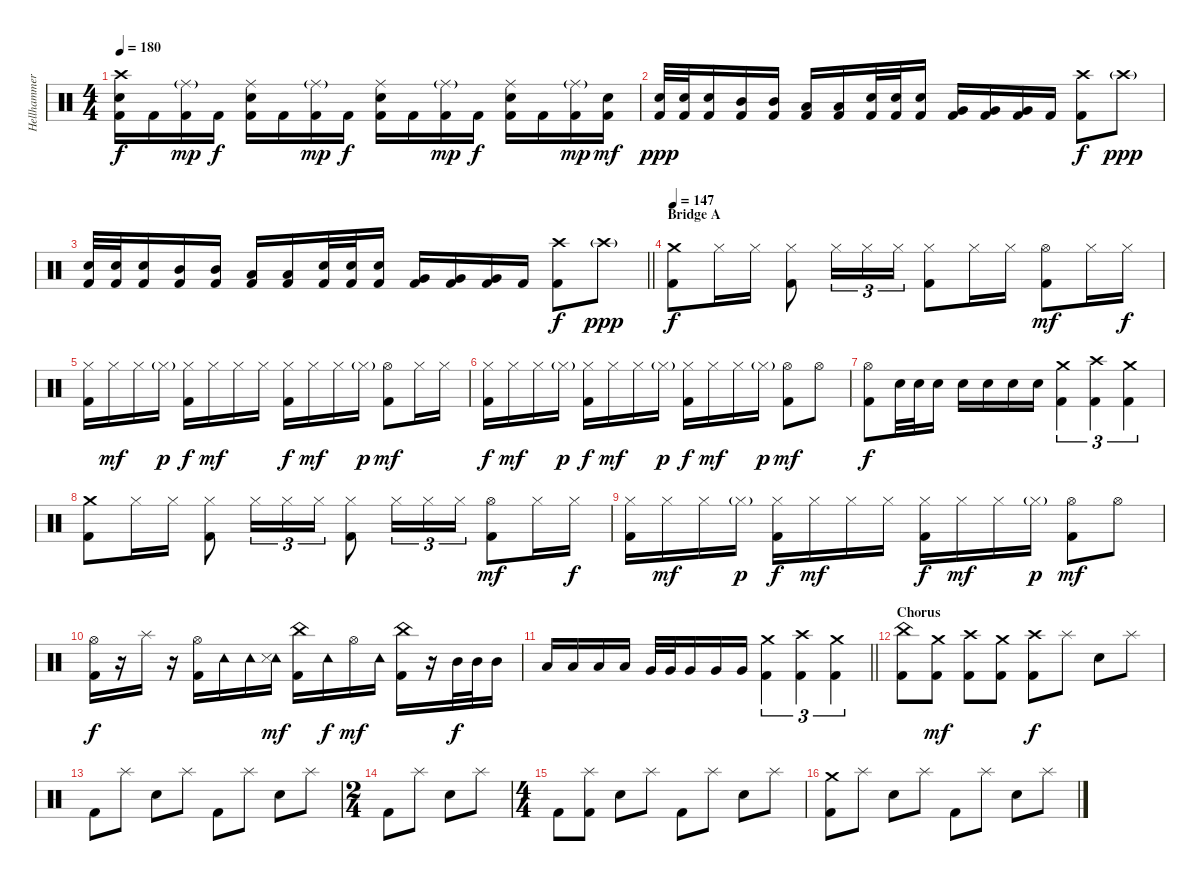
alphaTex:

\track ("Hellhammer" "Hellhammer") {instrument percussion}
\staff {score}
\articulation defaults
\ts (4 4)
\tempo 180
\clef neutral
\ks c
("Crash high (hit)" "Electric Snare (hit)" "Kick (hit) 2").16{dy f} "Kick (hit) 2".16 ("Ride (middle)"{g} "Kick (hit) 2").16{dy mp} "Kick (hit) 2".16{dy f} ("Ride (middle)" "Electric Snare (hit)" "Kick (hit) 2").16 "Kick (hit) 2".16 ("Ride (middle)"{g} "Kick (hit) 2").16{dy mp} "Kick (hit) 2".16{dy f} ("Ride (middle)" "Electric Snare (hit)" "Kick (hit) 2").16 "Kick (hit) 2".16 ("Ride (middle)"{g} "Kick (hit) 2").16{dy mp} "Kick (hit) 2".16{dy f} ("Ride (middle)" "Electric Snare (hit)" "Kick (hit) 2").16 "Kick (hit) 2".16 ("Ride (middle)"{g} "Kick (hit) 2").16{dy mp} ("Electric Snare (hit)" "Kick (hit) 2").16{dy mf} |
("Electric Snare (hit)" "Kick (hit) 2").32{dy ppp} ("Electric Snare (hit)" "Kick (hit) 2").32 ("Electric Snare (hit)" "Kick (hit) 2").16 ("Mid Tom (hit)" "Kick (hit) 2").16 ("Mid Tom (hit)" "Kick (hit) 2").16 ("Low Tom (hit)" "Kick (hit) 2").16 ("Low Tom (hit)" "Kick (hit) 2").16 ("Electric Snare (hit)" "Kick (hit) 2").32 ("Electric Snare (hit)" "Kick (hit) 2").32 ("Electric Snare (hit)" "Kick (hit) 2").16 ("Very Low Tom (hit)" "Kick (hit) 2").16 ("Very Low Tom (hit)" "Kick (hit) 2").16 ("Very Low Tom (hit)" "Kick (hit) 2").16 "Kick (hit) 2".16 ("Crash high (hit)" "Kick (hit) 2").8{dy f} "Crash high (hit)"{g}.8{dy ppp} |
\barLineRight lightlight
("Electric Snare (hit)" "Kick (hit) 2").32 ("Electric Snare (hit)" "Kick (hit) 2").32 ("Electric Snare (hit)" "Kick (hit) 2").16 ("Mid Tom (hit)" "Kick (hit) 2").16 ("Mid Tom (hit)" "Kick (hit) 2").16 ("Low Tom (hit)" "Kick (hit) 2").16 ("Low Tom (hit)" "Kick (hit) 2").16 ("Electric Snare (hit)" "Kick (hit) 2").32 ("Electric Snare (hit)" "Kick (hit) 2").32 ("Electric Snare (hit)" "Kick (hit) 2").16 ("Very Low Tom (hit)" "Kick (hit) 2").16 ("Very Low Tom (hit)" "Kick (hit) 2").16 ("Very Low Tom (hit)" "Kick (hit) 2").16 "Kick (hit) 2".16 ("Crash high (hit)" "Kick (hit) 2").8{dy f} "Crash high (hit)"{g}.8{dy ppp} |
\section ("" "Bridge A")
\tempo 147
("Crash medium (hit)" "Kick (hit) 2").8{dy f} "Hi-Hat (closed)".16 "Hi-Hat (closed)".16 ("Hi-Hat (closed)" "Kick (hit) 2").8 "Hi-Hat (closed)".16{tu (3 2)} "Hi-Hat (closed)".16{tu (3 2)} "Hi-Hat (closed)".16{tu (3 2)} ("Hi-Hat (closed)" "Kick (hit) 2").8 "Hi-Hat (closed)".16 "Hi-Hat (closed)".16 ("Hi-Hat (open)" "Kick (hit) 2").8{dy mf} "Hi-Hat (closed)".16 "Hi-Hat (closed)".16{dy f} |
("Hi-Hat (closed)" "Kick (hit) 2").16 "Hi-Hat (closed)".16{dy mf} "Hi-Hat (closed)".16 "Hi-Hat (closed)"{g}.16{dy p} ("Hi-Hat (closed)" "Kick (hit) 2").16{dy f} "Hi-Hat (closed)".16{dy mf} "Hi-Hat (closed)".16 "Hi-Hat (closed)".16 ("Hi-Hat (closed)" "Kick (hit) 2").16{dy f} "Hi-Hat (closed)".16{dy mf} "Hi-Hat (closed)".16 "Hi-Hat (closed)"{g}.16{dy p} ("Hi-Hat (open)" "Kick (hit) 2").8{dy mf} "Hi-Hat (closed)".16 "Hi-Hat (closed)".16 |
("Hi-Hat (closed)" "Kick (hit) 2").16{dy f} "Hi-Hat (closed)".16{dy mf} "Hi-Hat (closed)".16 "Hi-Hat (closed)"{g}.16{dy p} ("Hi-Hat (closed)" "Kick (hit) 2").16{dy f} "Hi-Hat (closed)".16{dy mf} "Hi-Hat (closed)".16 "Hi-Hat (closed)"{g}.16{dy p} ("Hi-Hat (closed)" "Kick (hit) 2").16{dy f} "Hi-Hat (closed)".16{dy mf} "Hi-Hat (closed)".16 "Hi-Hat (closed)"{g}.16{dy p} ("Hi-Hat (open)" "Kick (hit) 2").8{dy mf} "Hi-Hat (open)".8 |
("Hi-Hat (open)" "Kick (hit) 2").8{dy f} "Electric Snare (hit)".32 "Electric Snare (hit)".32 "Electric Snare (hit)".16 "Electric Snare (hit)".16 "Electric Snare (hit)".16 "Electric Snare (hit)".16 "Electric Snare (hit)".16 ("Crash medium (hit)" "Kick (hit) 2").4{tu (3 2)} ("Crash high (hit)" "Kick (hit) 2").4{tu (3 2)} ("Crash medium (hit)" "Kick (hit) 2").4{tu (3 2)} |
("Crash medium (hit)" "Kick (hit) 2").8 "Hi-Hat (closed)".16 "Hi-Hat (closed)".16 ("Hi-Hat (closed)" "Kick (hit) 2").8 "Hi-Hat (closed)".16{tu (3 2)} "Hi-Hat (closed)".16{tu (3 2)} "Hi-Hat (closed)".16{tu (3 2)} ("Hi-Hat (closed)" "Kick (hit) 2").8 "Hi-Hat (closed)".16{tu (3 2)} "Hi-Hat (closed)".16{tu (3 2)} "Hi-Hat (closed)".16{tu (3 2)} ("Hi-Hat (open)" "Kick (hit) 2").8{dy mf} "Hi-Hat (closed)".16 "Hi-Hat (closed)".16{dy f} |
("Hi-Hat (closed)" "Kick (hit) 2").16 "Hi-Hat (closed)".16{dy mf} "Hi-Hat (closed)".16 "Hi-Hat (closed)"{g}.16{dy p} ("Hi-Hat (closed)" "Kick (hit) 2").16{dy f} "Hi-Hat (closed)".16{dy mf} "Hi-Hat (closed)".16 "Hi-Hat (closed)".16 ("Hi-Hat (closed)" "Kick (hit) 2").16{dy f} "Hi-Hat (closed)".16{dy mf} "Hi-Hat (closed)".16 "Hi-Hat (closed)"{g}.16{dy p} ("Hi-Hat (open)" "Kick (hit) 2").8{dy mf} "Hi-Hat (open)".8 |
("Hi-Hat (open)" "Kick (hit) 2").16{dy f} r.16 "Splash (hit)".16 r.16 ("Hi-Hat (open)" "Kick (hit) 2").16 "Tambourine (hit)".16 "Tambourine (hit)".16 ("Tambourine (hit)" "Metronome (hit)").16{dy mf} ("China (hit)" "Kick (hit) 2").16 "Tambourine (hit)".16{dy f} "Hi-Hat (open)".16{dy mf} "Tambourine (hit)".16 ("China (hit)" "Kick (hit) 2").16 r.16 "Mid Tom (hit)".32{dy f} "Mid Tom (hit)".32 "Mid Tom (hit)".16 |
\barLineRight lightlight "Low Tom (hit)".16 "Low Tom (hit)".16 "Low Tom (hit)".16 "Low Tom (hit)".16 "Very Low Tom (hit)".32 "Very Low Tom (hit)".32 "Very Low Tom (hit)".16 "Very Low Tom (hit)".16 "Very Low Tom (hit)".16
("Crash medium (hit)" "Kick (hit) 2").4{tu (3 2)} ("Crash high (hit)" "Kick (hit) 2").4{tu (3 2)} ("Crash medium (hit)" "Kick (hit) 2").4{tu (3 2)} |
\section ("" "Chorus")
("China (hit)" "Kick (hit) 2").8 ("Crash medium (hit)" "Kick (hit) 2").8{dy mf} ("Crash high (hit)" "Kick (hit) 2").8 ("Crash medium (hit)" "Kick (hit) 2").8 ("Crash high (hit)" "Kick (hit) 2").8{dy f} "Splash (hit)".8 "Electric Snare (hit)".8 "Splash (hit)".8 |
"Kick (hit) 2".8 "Splash (hit)".8 "Electric Snare (hit)".8 "Splash (hit)".8 "Kick (hit) 2".8 "Splash (hit)".8 "Electric Snare (hit)".8 "Splash (hit)".8 |
\ts (2 4)
"Kick (hit) 2".8 "Splash (hit)".8 "Electric Snare (hit)".8 "Splash (hit)".8 |
\ts (4 4)
"Kick (hit) 2".8 ("Splash (hit)" "Kick (hit) 2").8 "Electric Snare (hit)".8 "Splash (hit)".8 "Kick (hit) 2".8 "Splash (hit)".8 "Electric Snare (hit)".8 "Splash (hit)".8 |
("Crash medium (hit)" "Kick (hit) 2").8 "Splash (hit)".8 "Electric Snare (hit)".8 "Splash (hit)".8 "Kick (hit) 2".8 "Splash (hit)".8 "Electric Snare (hit)".8 "Splash (hit)".8
